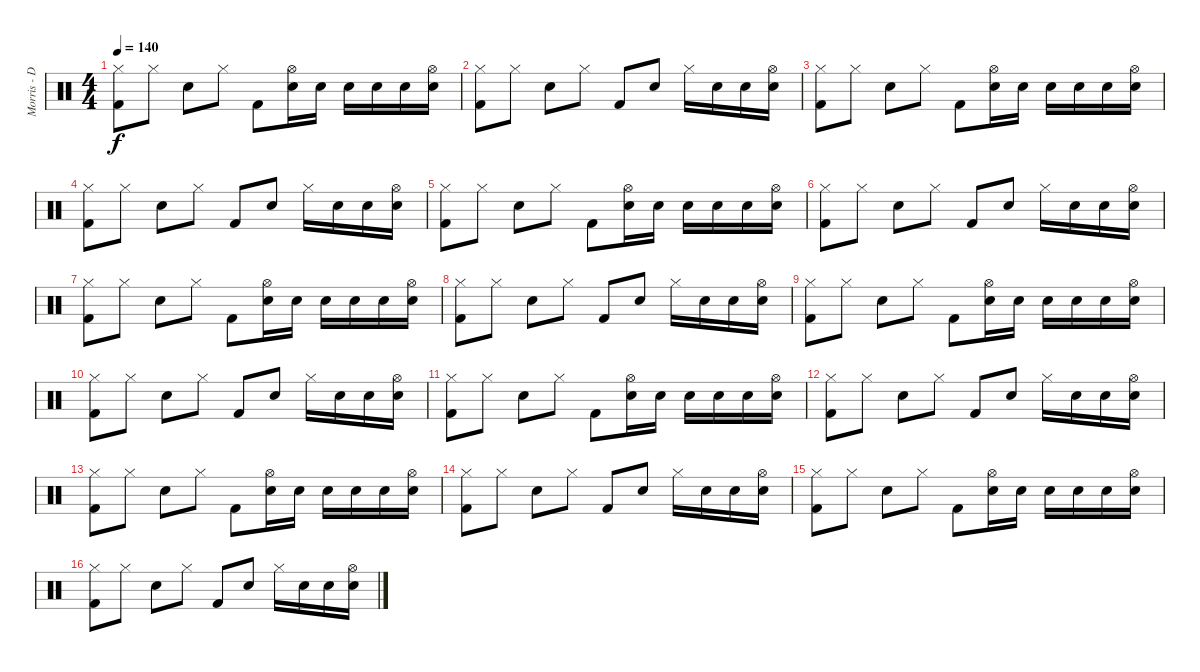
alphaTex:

\track ("Morris - Drums" "Morris - D") {instrument percussion}
\staff {score}
\articulation defaults
\ts (4 4)
\tempo 140
\clef neutral
\ks c
("Kick (hit) 2" "Hi-Hat (closed)").8{dy f} "Hi-Hat (closed)".8 "Snare (hit) 2".8 "Hi-Hat (closed)".8 "Kick (hit) 2".8 ("Snare (hit) 2" "Hi-Hat (open)").16 "Snare (hit) 2".16 "Snare (hit) 2".16 "Snare (hit) 2".16 "Snare (hit) 2".16 ("Snare (hit) 2" "Hi-Hat (open)").16 |
("Kick (hit) 2" "Hi-Hat (closed)").8 "Hi-Hat (closed)".8 "Snare (hit) 2".8 "Hi-Hat (closed)".8 "Kick (hit) 2".8 "Snare (hit) 2".8 "Hi-Hat (closed)".16 "Snare (hit) 2".16 "Snare (hit) 2".16 ("Snare (hit) 2" "Hi-Hat (open)").16 |
("Kick (hit) 2" "Hi-Hat (closed)").8 "Hi-Hat (closed)".8 "Snare (hit) 2".8 "Hi-Hat (closed)".8 "Kick (hit) 2".8 ("Snare (hit) 2" "Hi-Hat (open)").16 "Snare (hit) 2".16 "Snare (hit) 2".16 "Snare (hit) 2".16 "Snare (hit) 2".16 ("Snare (hit) 2" "Hi-Hat (open)").16 |
("Kick (hit) 2" "Hi-Hat (closed)").8 "Hi-Hat (closed)".8 "Snare (hit) 2".8 "Hi-Hat (closed)".8 "Kick (hit) 2".8 "Snare (hit) 2".8 "Hi-Hat (closed)".16 "Snare (hit) 2".16 "Snare (hit) 2".16 ("Snare (hit) 2" "Hi-Hat (open)").16 |
("Kick (hit) 2" "Hi-Hat (closed)").8 "Hi-Hat (closed)".8 "Snare (hit) 2".8 "Hi-Hat (closed)".8 "Kick (hit) 2".8 ("Snare (hit) 2" "Hi-Hat (open)").16 "Snare (hit) 2".16 "Snare (hit) 2".16 "Snare (hit) 2".16 "Snare (hit) 2".16 ("Snare (hit) 2" "Hi-Hat (open)").16 |
("Kick (hit) 2" "Hi-Hat (closed)").8 "Hi-Hat (closed)".8 "Snare (hit) 2".8 "Hi-Hat (closed)".8 "Kick (hit) 2".8 "Snare (hit) 2".8 "Hi-Hat (closed)".16 "Snare (hit) 2".16 "Snare (hit) 2".16 ("Snare (hit) 2" "Hi-Hat (open)").16 |
("Kick (hit) 2" "Hi-Hat (closed)").8 "Hi-Hat (closed)".8 "Snare (hit) 2".8 "Hi-Hat (closed)".8 "Kick (hit) 2".8 ("Snare (hit) 2" "Hi-Hat (open)").16 "Snare (hit) 2".16 "Snare (hit) 2".16 "Snare (hit) 2".16 "Snare (hit) 2".16 ("Snare (hit) 2" "Hi-Hat (open)").16 |
("Kick (hit) 2" "Hi-Hat (closed)").8 "Hi-Hat (closed)".8 "Snare (hit) 2".8 "Hi-Hat (closed)".8 "Kick (hit) 2".8 "Snare (hit) 2".8 "Hi-Hat (closed)".16 "Snare (hit) 2".16 "Snare (hit) 2".16 ("Snare (hit) 2" "Hi-Hat (open)").16 |
("Kick (hit) 2" "Hi-Hat (closed)").8 "Hi-Hat (closed)".8 "Snare (hit) 2".8 "Hi-Hat (closed)".8 "Kick (hit) 2".8 ("Snare (hit) 2" "Hi-Hat (open)").16 "Snare (hit) 2".16 "Snare (hit) 2".16 "Snare (hit) 2".16 "Snare (hit) 2".16 ("Snare (hit) 2" "Hi-Hat (open)").16 |
("Kick (hit) 2" "Hi-Hat (closed)").8 "Hi-Hat (closed)".8 "Snare (hit) 2".8 "Hi-Hat (closed)".8 "Kick (hit) 2".8 "Snare (hit) 2".8 "Hi-Hat (closed)".16 "Snare (hit) 2".16 "Snare (hit) 2".16 ("Snare (hit) 2" "Hi-Hat (open)").16 |
("Kick (hit) 2" "Hi-Hat (closed)").8 "Hi-Hat (closed)".8 "Snare (hit) 2".8 "Hi-Hat (closed)".8 "Kick (hit) 2".8 ("Snare (hit) 2" "Hi-Hat (open)").16 "Snare (hit) 2".16 "Snare (hit) 2".16 "Snare (hit) 2".16 "Snare (hit) 2".16 ("Snare (hit) 2" "Hi-Hat (open)").16 |
("Kick (hit) 2" "Hi-Hat (closed)").8 "Hi-Hat (closed)".8 "Snare (hit) 2".8 "Hi-Hat (closed)".8 "Kick (hit) 2".8 "Snare (hit) 2".8 "Hi-Hat (closed)".16 "Snare (hit) 2".16 "Snare (hit) 2".16 ("Snare (hit) 2" "Hi-Hat (open)").16 |
("Kick (hit) 2" "Hi-Hat (closed)").8 "Hi-Hat (closed)".8 "Snare (hit) 2".8 "Hi-Hat (closed)".8 "Kick (hit) 2".8 ("Snare (hit) 2" "Hi-Hat (open)").16 "Snare (hit) 2".16 "Snare (hit) 2".16 "Snare (hit) 2".16 "Snare (hit) 2".16 ("Snare (hit) 2" "Hi-Hat (open)").16 |
("Kick (hit) 2" "Hi-Hat (closed)").8 "Hi-Hat (closed)".8 "Snare (hit) 2".8 "Hi-Hat (closed)".8 "Kick (hit) 2".8 "Snare (hit) 2".8 "Hi-Hat (closed)".16 "Snare (hit) 2".16 "Snare (hit) 2".16 ("Snare (hit) 2" "Hi-Hat (open)").16 |
("Kick (hit) 2" "Hi-Hat (closed)").8 "Hi-Hat (closed)".8 "Snare (hit) 2".8 "Hi-Hat (closed)".8 "Kick (hit) 2".8 ("Snare (hit) 2" "Hi-Hat (open)").16 "Snare (hit) 2".16 "Snare (hit) 2".16 "Snare (hit) 2".16 "Snare (hit) 2".16 ("Snare (hit) 2" "Hi-Hat (open)").16 |
("Kick (hit) 2" "Hi-Hat (closed)").8 "Hi-Hat (closed)".8 "Snare (hit) 2".8 "Hi-Hat (closed)".8 "Kick (hit) 2".8 "Snare (hit) 2".8 "Hi-Hat (closed)".16 "Snare (hit) 2".16 "Snare (hit) 2".16 ("Snare (hit) 2" "Hi-Hat (open)").16
